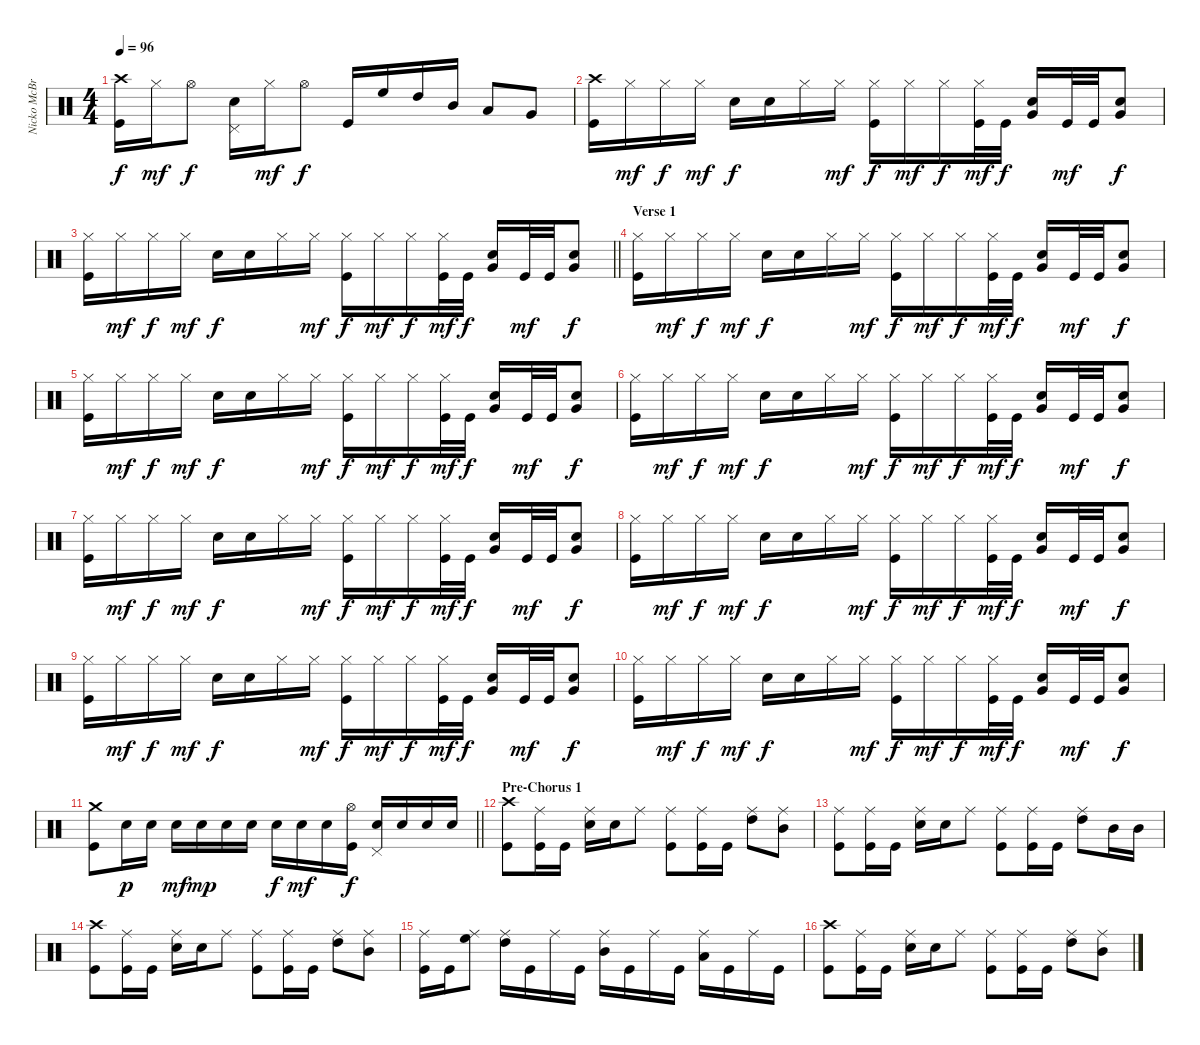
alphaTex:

\track ("Nicko McBrain" "Nicko McBr") {instrument percussion}
\staff {score}
\articulation defaults
\ts (4 4)
\tempo 96
\clef neutral
\ks c
("Crash high (hit)" "Kick (hit)").16{dy f} "Hi-Hat (closed)".16{dy mf} "Hi-Hat (open)".8{dy f} ("Electric Snare (hit)" "Pedal Hi-Hat (hit)").16 "Hi-Hat (closed)".16{dy mf} "Hi-Hat (open)".8{dy f} "Kick (hit)".16 "High Floor Tom (hit)".16 "High Tom (hit)".16 "Mid Tom (hit)".16 "Low Tom (hit)".8 "Very Low Tom (hit)".8 |
("Crash high (hit)" "Kick (hit)").16 "Hi-Hat (closed)".16{dy mf} "Hi-Hat (closed)".16{dy f} "Hi-Hat (closed)".16{dy mf} "Electric Snare (hit)".16{dy f} "Electric Snare (hit)".16 "Hi-Hat (closed)".16 "Hi-Hat (closed)".16{dy mf} ("Hi-Hat (closed)" "Kick (hit)").16{dy f} "Hi-Hat (closed)".16{dy mf} "Hi-Hat (closed)".16{dy f} ("Hi-Hat (closed)" "Kick (hit)").32{dy mf} "Kick (hit)".32{dy f} ("Electric Snare (hit)" "Very Low Tom (hit)").16 "Kick (hit)".32{dy mf} "Kick (hit)".32 ("Electric Snare (hit)" "Very Low Tom (hit)").8{dy f} |
\barLineRight lightlight
("Hi-Hat (closed)" "Kick (hit)").16 "Hi-Hat (closed)".16{dy mf} "Hi-Hat (closed)".16{dy f} "Hi-Hat (closed)".16{dy mf} "Electric Snare (hit)".16{dy f} "Electric Snare (hit)".16 "Hi-Hat (closed)".16 "Hi-Hat (closed)".16{dy mf} ("Hi-Hat (closed)" "Kick (hit)").16{dy f} "Hi-Hat (closed)".16{dy mf} "Hi-Hat (closed)".16{dy f} ("Hi-Hat (closed)" "Kick (hit)").32{dy mf} "Kick (hit)".32{dy f} ("Electric Snare (hit)" "Very Low Tom (hit)").16 "Kick (hit)".32{dy mf} "Kick (hit)".32 ("Electric Snare (hit)" "Very Low Tom (hit)").8{dy f} |
\section ("" "Verse 1")
("Hi-Hat (closed)" "Kick (hit)").16 "Hi-Hat (closed)".16{dy mf} "Hi-Hat (closed)".16{dy f} "Hi-Hat (closed)".16{dy mf} "Electric Snare (hit)".16{dy f} "Electric Snare (hit)".16 "Hi-Hat (closed)".16 "Hi-Hat (closed)".16{dy mf} ("Hi-Hat (closed)" "Kick (hit)").16{dy f} "Hi-Hat (closed)".16{dy mf} "Hi-Hat (closed)".16{dy f} ("Hi-Hat (closed)" "Kick (hit)").32{dy mf} "Kick (hit)".32{dy f} ("Electric Snare (hit)" "Very Low Tom (hit)").16 "Kick (hit)".32{dy mf} "Kick (hit)".32 ("Electric Snare (hit)" "Very Low Tom (hit)").8{dy f} |
("Hi-Hat (closed)" "Kick (hit)").16 "Hi-Hat (closed)".16{dy mf} "Hi-Hat (closed)".16{dy f} "Hi-Hat (closed)".16{dy mf} "Electric Snare (hit)".16{dy f} "Electric Snare (hit)".16 "Hi-Hat (closed)".16 "Hi-Hat (closed)".16{dy mf} ("Hi-Hat (closed)" "Kick (hit)").16{dy f} "Hi-Hat (closed)".16{dy mf} "Hi-Hat (closed)".16{dy f} ("Hi-Hat (closed)" "Kick (hit)").32{dy mf} "Kick (hit)".32{dy f} ("Electric Snare (hit)" "Very Low Tom (hit)").16 "Kick (hit)".32{dy mf} "Kick (hit)".32 ("Electric Snare (hit)" "Very Low Tom (hit)").8{dy f} |
("Hi-Hat (closed)" "Kick (hit)").16 "Hi-Hat (closed)".16{dy mf} "Hi-Hat (closed)".16{dy f} "Hi-Hat (closed)".16{dy mf} "Electric Snare (hit)".16{dy f} "Electric Snare (hit)".16 "Hi-Hat (closed)".16 "Hi-Hat (closed)".16{dy mf} ("Hi-Hat (closed)" "Kick (hit)").16{dy f} "Hi-Hat (closed)".16{dy mf} "Hi-Hat (closed)".16{dy f} ("Hi-Hat (closed)" "Kick (hit)").32{dy mf} "Kick (hit)".32{dy f} ("Electric Snare (hit)" "Very Low Tom (hit)").16 "Kick (hit)".32{dy mf} "Kick (hit)".32 ("Electric Snare (hit)" "Very Low Tom (hit)").8{dy f} |
("Hi-Hat (closed)" "Kick (hit)").16 "Hi-Hat (closed)".16{dy mf} "Hi-Hat (closed)".16{dy f} "Hi-Hat (closed)".16{dy mf} "Electric Snare (hit)".16{dy f} "Electric Snare (hit)".16 "Hi-Hat (closed)".16 "Hi-Hat (closed)".16{dy mf} ("Hi-Hat (closed)" "Kick (hit)").16{dy f} "Hi-Hat (closed)".16{dy mf} "Hi-Hat (closed)".16{dy f} ("Hi-Hat (closed)" "Kick (hit)").32{dy mf} "Kick (hit)".32{dy f} ("Electric Snare (hit)" "Very Low Tom (hit)").16 "Kick (hit)".32{dy mf} "Kick (hit)".32 ("Electric Snare (hit)" "Very Low Tom (hit)").8{dy f} |
("Hi-Hat (closed)" "Kick (hit)").16 "Hi-Hat (closed)".16{dy mf} "Hi-Hat (closed)".16{dy f} "Hi-Hat (closed)".16{dy mf} "Electric Snare (hit)".16{dy f} "Electric Snare (hit)".16 "Hi-Hat (closed)".16 "Hi-Hat (closed)".16{dy mf} ("Hi-Hat (closed)" "Kick (hit)").16{dy f} "Hi-Hat (closed)".16{dy mf} "Hi-Hat (closed)".16{dy f} ("Hi-Hat (closed)" "Kick (hit)").32{dy mf} "Kick (hit)".32{dy f} ("Electric Snare (hit)" "Very Low Tom (hit)").16 "Kick (hit)".32{dy mf} "Kick (hit)".32 ("Electric Snare (hit)" "Very Low Tom (hit)").8{dy f} |
("Hi-Hat (closed)" "Kick (hit)").16 "Hi-Hat (closed)".16{dy mf} "Hi-Hat (closed)".16{dy f} "Hi-Hat (closed)".16{dy mf} "Electric Snare (hit)".16{dy f} "Electric Snare (hit)".16 "Hi-Hat (closed)".16 "Hi-Hat (closed)".16{dy mf} ("Hi-Hat (closed)" "Kick (hit)").16{dy f} "Hi-Hat (closed)".16{dy mf} "Hi-Hat (closed)".16{dy f} ("Hi-Hat (closed)" "Kick (hit)").32{dy mf} "Kick (hit)".32{dy f} ("Electric Snare (hit)" "Very Low Tom (hit)").16 "Kick (hit)".32{dy mf} "Kick (hit)".32 ("Electric Snare (hit)" "Very Low Tom (hit)").8{dy f} |
("Hi-Hat (closed)" "Kick (hit)").16 "Hi-Hat (closed)".16{dy mf} "Hi-Hat (closed)".16{dy f} "Hi-Hat (closed)".16{dy mf} "Electric Snare (hit)".16{dy f} "Electric Snare (hit)".16 "Hi-Hat (closed)".16 "Hi-Hat (closed)".16{dy mf} ("Hi-Hat (closed)" "Kick (hit)").16{dy f} "Hi-Hat (closed)".16{dy mf} "Hi-Hat (closed)".16{dy f} ("Hi-Hat (closed)" "Kick (hit)").32{dy mf} "Kick (hit)".32{dy f} ("Electric Snare (hit)" "Very Low Tom (hit)").16 "Kick (hit)".32{dy mf} "Kick (hit)".32 ("Electric Snare (hit)" "Very Low Tom (hit)").8{dy f} |
\barLineRight lightlight
("Crash medium (hit)" "Kick (hit)").8 "Electric Snare (hit)".16{dy p} "Electric Snare (hit)".16 "Electric Snare (hit)".16{dy mf} "Electric Snare (hit)".16{dy mp} "Electric Snare (hit)".16 "Electric Snare (hit)".16 "Electric Snare (hit)".16{dy f} "Electric Snare (hit)".16{dy mf} "Electric Snare (hit)".16 ("Hi-Hat (open)" "Kick (hit)").16{dy f} ("Electric Snare (hit)" "Pedal Hi-Hat (hit)").16 "Electric Snare (hit)".16 "Electric Snare (hit)".16 "Electric Snare (hit)".16 |
\section ("" "Pre-Chorus 1")
("Crash high (hit)" "Kick (hit)").8 ("Ride (middle)" "Kick (hit)").16 "Kick (hit)".16 ("Ride (middle)" "Electric Snare (hit)").16 "Electric Snare (hit)".16 "Ride (middle)".8 ("Ride (middle)" "Kick (hit)").8 ("Ride (middle)" "Kick (hit)").16 "Kick (hit)".16 ("Ride (middle)" "High Tom (hit)").8 ("Ride (middle)" "Mid Tom (hit)").8 |
("Ride (middle)" "Kick (hit)").8 ("Ride (middle)" "Kick (hit)").16 "Kick (hit)".16 ("Ride (middle)" "Electric Snare (hit)").16 "Electric Snare (hit)".16 "Ride (middle)".8 ("Ride (middle)" "Kick (hit)").8 ("Ride (middle)" "Kick (hit)").16 "Kick (hit)".16 ("Ride (middle)" "High Tom (hit)").8 "Mid Tom (hit)".16 "Mid Tom (hit)".16 |
("Crash high (hit)" "Kick (hit)").8 ("Ride (middle)" "Kick (hit)").16 "Kick (hit)".16 ("Ride (middle)" "Electric Snare (hit)").16 "Electric Snare (hit)".16 "Ride (middle)".8 ("Ride (middle)" "Kick (hit)").8 ("Ride (middle)" "Kick (hit)").16 "Kick (hit)".16 ("Ride (middle)" "High Tom (hit)").8 ("Ride (middle)" "Mid Tom (hit)").8 |
("Ride (middle)" "Kick (hit)").16 "Kick (hit)".16 ("Ride (middle)" "High Floor Tom (hit)").8 ("Ride (middle)" "High Tom (hit)").16 "Kick (hit)".16 "Ride (middle)".16 "Kick (hit)".16 ("Ride (middle)" "Mid Tom (hit)").16 "Kick (hit)".16 "Ride (middle)".16 "Kick (hit)".16 ("Ride (middle)" "Low Tom (hit)").16 "Kick (hit)".16 "Ride (middle)".16 "Kick (hit)".16 |
("Crash high (hit)" "Kick (hit)").8 ("Ride (middle)" "Kick (hit)").16 "Kick (hit)".16 ("Ride (middle)" "Electric Snare (hit)").16 "Electric Snare (hit)".16 "Ride (middle)".8 ("Ride (middle)" "Kick (hit)").8 ("Ride (middle)" "Kick (hit)").16 "Kick (hit)".16 ("Ride (middle)" "High Tom (hit)").8 ("Ride (middle)" "Mid Tom (hit)").8
